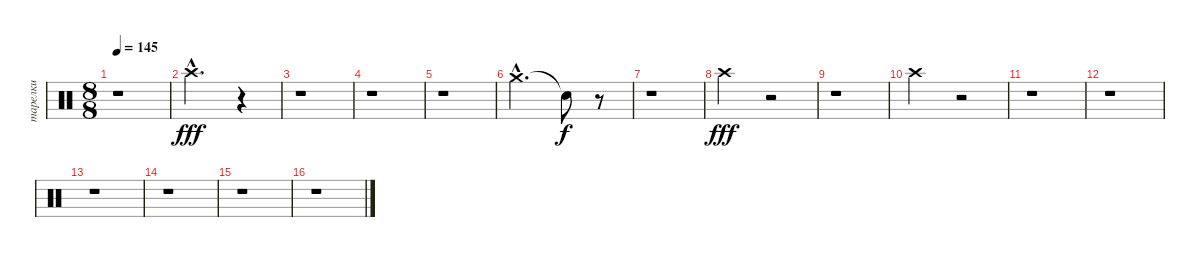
\track ("тарелки" "тарелки") {instrument percussion}
\staff {score}
\articulation defaults
\ts (8 8)
\tempo 145
\clef neutral
\ks c
r.1{dy fff} |
"Crash high (hit)"{hac}.2{d} r.4 |
r.1 |
r.1 |
r.1 |
"Crash medium (hit)"{hac}.2{d} "Snare (hit)"{t}.8{dy f} r.8 |
r.1 |
"Crash high (hit)".2{dy fff} r.2 |
r.1 |
"Crash high (hit)".2 r.2 |
r.1 |
r.1 |
r.1 |
r.1 |
r.1 |
r.1
